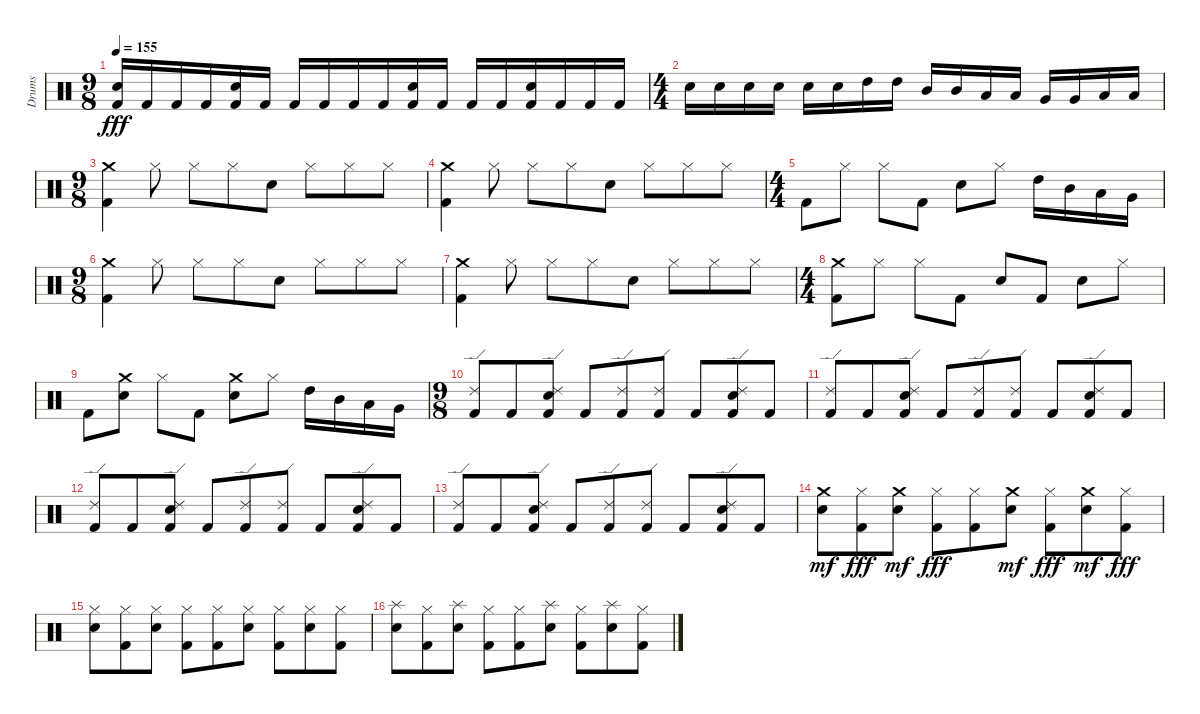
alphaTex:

\track ("Drums" "Drums") {instrument percussion}
\staff {score}
\articulation defaults
\ts (9 8)
\tempo 155
\clef neutral
\ks c
("Electric Snare (hit)" "Kick (hit) 2").16{dy fff} "Kick (hit) 2".16 "Kick (hit) 2".16 "Kick (hit) 2".16 ("Electric Snare (hit)" "Kick (hit) 2").16 "Kick (hit) 2".16 "Kick (hit) 2".16 "Kick (hit) 2".16 "Kick (hit) 2".16 "Kick (hit) 2".16 ("Electric Snare (hit)" "Kick (hit) 2").16 "Kick (hit) 2".16 "Kick (hit) 2".16 "Kick (hit) 2".16 ("Electric Snare (hit)" "Kick (hit) 2").16 "Kick (hit) 2".16 "Kick (hit) 2".16 "Kick (hit) 2".16 |
\ts (4 4)
"Electric Snare (hit)".16 "Electric Snare (hit)".16 "Electric Snare (hit)".16 "Electric Snare (hit)".16 "Electric Snare (hit)".16 "Electric Snare (hit)".16 "High Tom (hit)".16 "High Tom (hit)".16 "Mid Tom (hit)".16 "Mid Tom (hit)".16 "Low Tom (hit)".16 "Low Tom (hit)".16 "Very Low Tom (hit)".16 "Very Low Tom (hit)".16 "Low Floor Tom (hit)".16 "Low Floor Tom (hit)".16 |
\ts (9 8)
("Crash medium (hit)" "Kick (hit) 2").4 "Hi-Hat (closed)".8 "Hi-Hat (closed)".8 "Hi-Hat (closed)".8 "Electric Snare (hit)".8 "Hi-Hat (closed)".8 "Hi-Hat (closed)".8 "Hi-Hat (closed)".8 |
("Crash medium (hit)" "Kick (hit) 2").4 "Hi-Hat (closed)".8 "Hi-Hat (closed)".8 "Hi-Hat (closed)".8 "Electric Snare (hit)".8 "Hi-Hat (closed)".8 "Hi-Hat (closed)".8 "Hi-Hat (closed)".8 |
\ts (4 4)
"Kick (hit) 2".8 "Hi-Hat (closed)".8 "Hi-Hat (closed)".8 "Kick (hit) 2".8 "Electric Snare (hit)".8 "Hi-Hat (closed)".8 "High Tom (hit)".16 "Mid Tom (hit)".16 "Low Tom (hit)".16 "Very Low Tom (hit)".16 |
\ts (9 8)
("Crash medium (hit)" "Kick (hit) 2").4 "Hi-Hat (closed)".8 "Hi-Hat (closed)".8 "Hi-Hat (closed)".8 "Electric Snare (hit)".8 "Hi-Hat (closed)".8 "Hi-Hat (closed)".8 "Hi-Hat (closed)".8 |
("Crash medium (hit)" "Kick (hit) 2").4 "Hi-Hat (closed)".8 "Hi-Hat (closed)".8 "Hi-Hat (closed)".8 "Electric Snare (hit)".8 "Hi-Hat (closed)".8 "Hi-Hat (closed)".8 "Hi-Hat (closed)".8 |
\ts (4 4)
("Crash medium (hit)" "Kick (hit) 2").8 "Hi-Hat (closed)".8 "Hi-Hat (closed)".8 "Kick (hit) 2".8 "Electric Snare (hit)".8 "Kick (hit) 2".8 "Electric Snare (hit)".8 "Hi-Hat (closed)".8 |
"Kick (hit) 2".8 ("Electric Snare (hit)" "Crash medium (hit)").8 "Hi-Hat (closed)".8 "Kick (hit) 2".8 ("Electric Snare (hit)" "Crash medium (hit)").8 "Hi-Hat (closed)".8 "High Tom (hit)".16 "Mid Tom (hit)".16 "Low Tom (hit)".16 "Very Low Tom (hit)".16 |
\ts (9 8)
("Ride (edge) 2" "Kick (hit) 2").8 "Kick (hit) 2".8 ("Electric Snare (hit)" "Ride (edge) 2" "Kick (hit) 2").8 "Kick (hit) 2".8 ("Ride (edge) 2" "Kick (hit) 2").8 ("Ride (edge) 2" "Kick (hit) 2").8 "Kick (hit) 2".8 ("Electric Snare (hit)" "Ride (edge) 2" "Kick (hit) 2").8 "Kick (hit) 2".8 |
("Ride (edge) 2" "Kick (hit) 2").8 "Kick (hit) 2".8 ("Electric Snare (hit)" "Ride (edge) 2" "Kick (hit) 2").8 "Kick (hit) 2".8 ("Ride (edge) 2" "Kick (hit) 2").8 ("Ride (edge) 2" "Kick (hit) 2").8 "Kick (hit) 2".8 ("Electric Snare (hit)" "Ride (edge) 2" "Kick (hit) 2").8 "Kick (hit) 2".8 |
("Ride (edge) 2" "Kick (hit) 2").8 "Kick (hit) 2".8 ("Electric Snare (hit)" "Ride (edge) 2" "Kick (hit) 2").8 "Kick (hit) 2".8 ("Ride (edge) 2" "Kick (hit) 2").8 ("Ride (edge) 2" "Kick (hit) 2").8 "Kick (hit) 2".8 ("Electric Snare (hit)" "Ride (edge) 2" "Kick (hit) 2").8 "Kick (hit) 2".8 |
("Ride (edge) 2" "Kick (hit) 2").8 "Kick (hit) 2".8 ("Electric Snare (hit)" "Ride (edge) 2" "Kick (hit) 2").8 "Kick (hit) 2".8 ("Ride (edge) 2" "Kick (hit) 2").8 ("Ride (edge) 2" "Kick (hit) 2").8 "Kick (hit) 2".8 ("Electric Snare (hit)" "Ride (edge) 2" "Kick (hit) 2").8 "Kick (hit) 2".8 |
("Electric Snare (hit)" "Crash medium (hit)").8{dy mf} ("Hi-Hat (closed)" "Kick (hit) 2").8{dy fff} ("Electric Snare (hit)" "Crash medium (hit)").8{dy mf} ("Hi-Hat (closed)" "Kick (hit) 2").8{dy fff} ("Hi-Hat (closed)" "Kick (hit) 2").8 ("Electric Snare (hit)" "Crash medium (hit)").8{dy mf} ("Hi-Hat (closed)" "Kick (hit) 2").8{dy fff} ("Electric Snare (hit)" "Crash medium (hit)").8{dy mf} ("Hi-Hat (closed)" "Kick (hit) 2").8{dy fff} |
("Electric Snare (hit)" "Hi-Hat (closed)").8 ("Hi-Hat (closed)" "Kick (hit) 2").8 ("Electric Snare (hit)" "Hi-Hat (closed)").8 ("Hi-Hat (closed)" "Kick (hit) 2").8 ("Hi-Hat (closed)" "Kick (hit) 2").8 ("Electric Snare (hit)" "Hi-Hat (closed)").8 ("Hi-Hat (closed)" "Kick (hit) 2").8 ("Electric Snare (hit)" "Hi-Hat (closed)").8 ("Hi-Hat (closed)" "Kick (hit) 2").8 |
("Electric Snare (hit)" "Splash (hit)").8 ("Hi-Hat (closed)" "Kick (hit) 2").8 ("Electric Snare (hit)" "Splash (hit)").8 ("Hi-Hat (closed)" "Kick (hit) 2").8 ("Hi-Hat (closed)" "Kick (hit) 2").8 ("Electric Snare (hit)" "Splash (hit)").8 ("Hi-Hat (closed)" "Kick (hit) 2").8 ("Electric Snare (hit)" "Splash (hit)").8 ("Hi-Hat (closed)" "Kick (hit) 2").8
